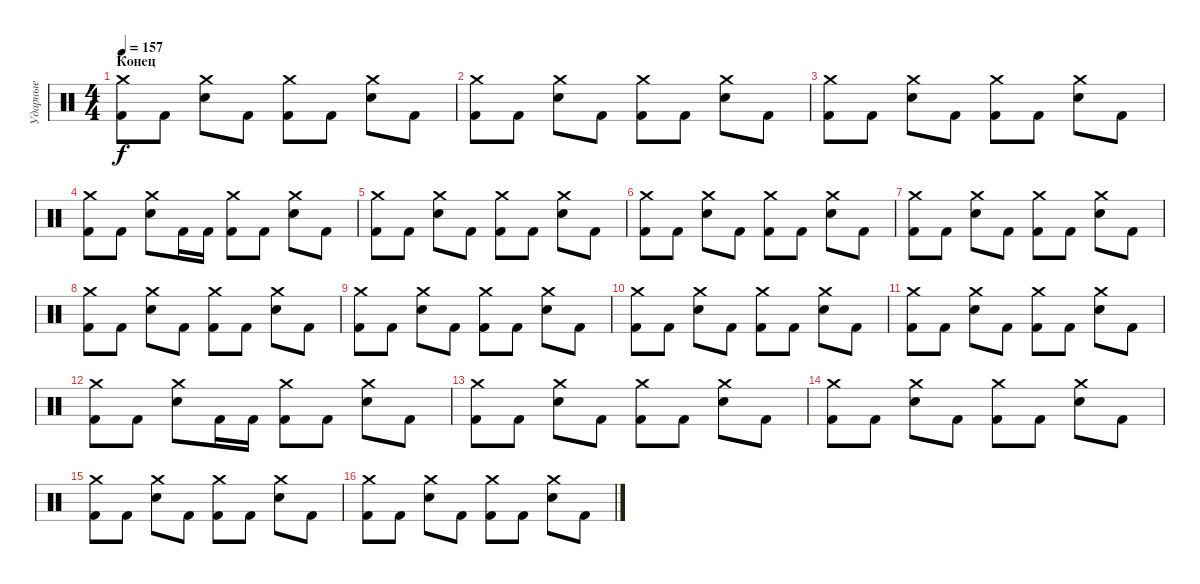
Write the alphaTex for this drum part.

\track ("Ударные" "Ударные") {instrument percussion}
\staff {score}
\articulation defaults
\ts (4 4)
\section ("" "Конец")
\tempo 157
\clef neutral
\ks c
("Kick (hit) 2" "Crash medium (hit)").8{dy f} "Kick (hit) 2".8 ("Snare (hit) 2" "Crash medium (hit)").8 "Kick (hit) 2".8 ("Kick (hit) 2" "Crash medium (hit)").8 "Kick (hit) 2".8 ("Snare (hit) 2" "Crash medium (hit)").8 "Kick (hit) 2".8 |
("Kick (hit) 2" "Crash medium (hit)").8 "Kick (hit) 2".8 ("Snare (hit) 2" "Crash medium (hit)").8 "Kick (hit) 2".8 ("Kick (hit) 2" "Crash medium (hit)").8 "Kick (hit) 2".8 ("Snare (hit) 2" "Crash medium (hit)").8 "Kick (hit) 2".8 |
("Kick (hit) 2" "Crash medium (hit)").8 "Kick (hit) 2".8 ("Snare (hit) 2" "Crash medium (hit)").8 "Kick (hit) 2".8 ("Kick (hit) 2" "Crash medium (hit)").8 "Kick (hit) 2".8 ("Snare (hit) 2" "Crash medium (hit)").8 "Kick (hit) 2".8 |
("Kick (hit) 2" "Crash medium (hit)").8 "Kick (hit) 2".8 ("Snare (hit) 2" "Crash medium (hit)").8 "Kick (hit) 2".16 "Kick (hit) 2".16 ("Kick (hit) 2" "Crash medium (hit)").8 "Kick (hit) 2".8 ("Snare (hit) 2" "Crash medium (hit)").8 "Kick (hit) 2".8 |
("Kick (hit) 2" "Crash medium (hit)").8 "Kick (hit) 2".8 ("Snare (hit) 2" "Crash medium (hit)").8 "Kick (hit) 2".8 ("Kick (hit) 2" "Crash medium (hit)").8 "Kick (hit) 2".8 ("Snare (hit) 2" "Crash medium (hit)").8 "Kick (hit) 2".8 |
("Kick (hit) 2" "Crash medium (hit)").8 "Kick (hit) 2".8 ("Snare (hit) 2" "Crash medium (hit)").8 "Kick (hit) 2".8 ("Kick (hit) 2" "Crash medium (hit)").8 "Kick (hit) 2".8 ("Snare (hit) 2" "Crash medium (hit)").8 "Kick (hit) 2".8 |
("Kick (hit) 2" "Crash medium (hit)").8 "Kick (hit) 2".8 ("Snare (hit) 2" "Crash medium (hit)").8 "Kick (hit) 2".8 ("Kick (hit) 2" "Crash medium (hit)").8 "Kick (hit) 2".8 ("Snare (hit) 2" "Crash medium (hit)").8 "Kick (hit) 2".8 |
("Kick (hit) 2" "Crash medium (hit)").8 "Kick (hit) 2".8 ("Snare (hit) 2" "Crash medium (hit)").8 "Kick (hit) 2".8 ("Kick (hit) 2" "Crash medium (hit)").8 "Kick (hit) 2".8 ("Snare (hit) 2" "Crash medium (hit)").8 "Kick (hit) 2".8 |
("Kick (hit) 2" "Crash medium (hit)").8 "Kick (hit) 2".8 ("Snare (hit) 2" "Crash medium (hit)").8 "Kick (hit) 2".8 ("Kick (hit) 2" "Crash medium (hit)").8 "Kick (hit) 2".8 ("Snare (hit) 2" "Crash medium (hit)").8 "Kick (hit) 2".8 |
("Kick (hit) 2" "Crash medium (hit)").8 "Kick (hit) 2".8 ("Snare (hit) 2" "Crash medium (hit)").8 "Kick (hit) 2".8 ("Kick (hit) 2" "Crash medium (hit)").8 "Kick (hit) 2".8 ("Snare (hit) 2" "Crash medium (hit)").8 "Kick (hit) 2".8 |
("Kick (hit) 2" "Crash medium (hit)").8 "Kick (hit) 2".8 ("Snare (hit) 2" "Crash medium (hit)").8 "Kick (hit) 2".8 ("Kick (hit) 2" "Crash medium (hit)").8 "Kick (hit) 2".8 ("Snare (hit) 2" "Crash medium (hit)").8 "Kick (hit) 2".8 |
("Kick (hit) 2" "Crash medium (hit)").8 "Kick (hit) 2".8 ("Snare (hit) 2" "Crash medium (hit)").8 "Kick (hit) 2".16 "Kick (hit) 2".16 ("Kick (hit) 2" "Crash medium (hit)").8 "Kick (hit) 2".8 ("Snare (hit) 2" "Crash medium (hit)").8 "Kick (hit) 2".8 |
("Kick (hit) 2" "Crash medium (hit)").8 "Kick (hit) 2".8 ("Snare (hit) 2" "Crash medium (hit)").8 "Kick (hit) 2".8 ("Kick (hit) 2" "Crash medium (hit)").8 "Kick (hit) 2".8 ("Snare (hit) 2" "Crash medium (hit)").8 "Kick (hit) 2".8 |
("Kick (hit) 2" "Crash medium (hit)").8 "Kick (hit) 2".8 ("Snare (hit) 2" "Crash medium (hit)").8 "Kick (hit) 2".8 ("Kick (hit) 2" "Crash medium (hit)").8 "Kick (hit) 2".8 ("Snare (hit) 2" "Crash medium (hit)").8 "Kick (hit) 2".8 |
("Kick (hit) 2" "Crash medium (hit)").8 "Kick (hit) 2".8 ("Snare (hit) 2" "Crash medium (hit)").8 "Kick (hit) 2".8 ("Kick (hit) 2" "Crash medium (hit)").8 "Kick (hit) 2".8 ("Snare (hit) 2" "Crash medium (hit)").8 "Kick (hit) 2".8 |
("Kick (hit) 2" "Crash medium (hit)").8 "Kick (hit) 2".8 ("Snare (hit) 2" "Crash medium (hit)").8 "Kick (hit) 2".8 ("Kick (hit) 2" "Crash medium (hit)").8 "Kick (hit) 2".8 ("Snare (hit) 2" "Crash medium (hit)").8 "Kick (hit) 2".8
